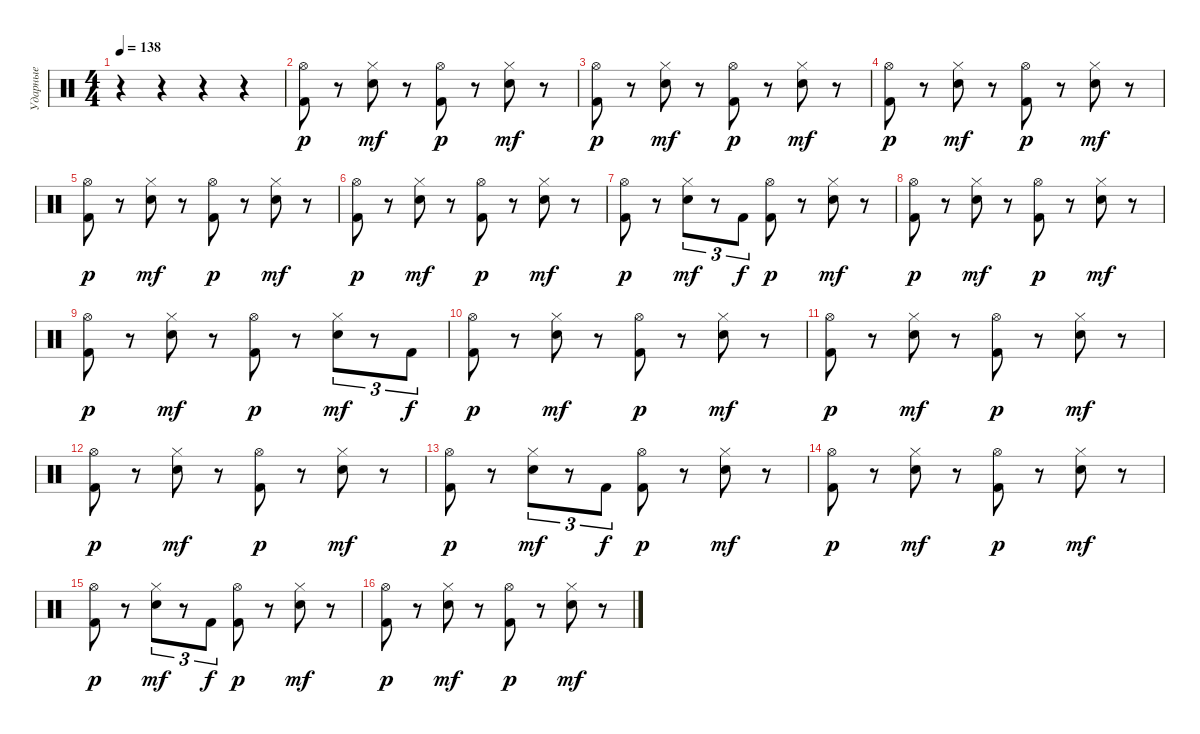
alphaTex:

\track ("Ударные" "Ударные") {instrument percussion}
\staff {score}
\articulation defaults
\ts (4 4)
\tempo 138
\clef neutral
\ks c
r.4{dy p} r.4 r.4 r.4 |
("Hi-Hat (open)" "Kick (hit) 2").8 r.8 ("Hi-Hat (closed)" "Snare (hit) 2").8{dy mf} r.8 ("Hi-Hat (open)" "Kick (hit) 2").8{dy p} r.8 ("Hi-Hat (closed)" "Snare (hit) 2").8{dy mf} r.8 |
("Hi-Hat (open)" "Kick (hit) 2").8{dy p} r.8 ("Hi-Hat (closed)" "Snare (hit) 2").8{dy mf} r.8 ("Hi-Hat (open)" "Kick (hit) 2").8{dy p} r.8 ("Hi-Hat (closed)" "Snare (hit) 2").8{dy mf} r.8 |
("Hi-Hat (open)" "Kick (hit) 2").8{dy p} r.8 ("Hi-Hat (closed)" "Snare (hit) 2").8{dy mf} r.8 ("Hi-Hat (open)" "Kick (hit) 2").8{dy p} r.8 ("Hi-Hat (closed)" "Snare (hit) 2").8{dy mf} r.8 |
("Hi-Hat (open)" "Kick (hit) 2").8{dy p} r.8 ("Hi-Hat (closed)" "Snare (hit) 2").8{dy mf} r.8 ("Hi-Hat (open)" "Kick (hit) 2").8{dy p} r.8 ("Hi-Hat (closed)" "Snare (hit) 2").8{dy mf} r.8 |
("Hi-Hat (open)" "Kick (hit) 2").8{dy p} r.8 ("Hi-Hat (closed)" "Snare (hit) 2").8{dy mf} r.8 ("Hi-Hat (open)" "Kick (hit) 2").8{dy p} r.8 ("Hi-Hat (closed)" "Snare (hit) 2").8{dy mf} r.8 |
("Hi-Hat (open)" "Kick (hit) 2").8{dy p} r.8 ("Hi-Hat (closed)" "Snare (hit) 2").8{tu (3 2) dy mf} r.8{tu (3 2)} "Kick (hit) 2".8{tu (3 2) dy f} ("Hi-Hat (open)" "Kick (hit) 2").8{dy p} r.8 ("Hi-Hat (closed)" "Snare (hit) 2").8{dy mf} r.8 |
("Hi-Hat (open)" "Kick (hit) 2").8{dy p} r.8 ("Hi-Hat (closed)" "Snare (hit) 2").8{dy mf} r.8 ("Hi-Hat (open)" "Kick (hit) 2").8{dy p} r.8 ("Hi-Hat (closed)" "Snare (hit) 2").8{dy mf} r.8 |
("Hi-Hat (open)" "Kick (hit) 2").8{dy p} r.8 ("Hi-Hat (closed)" "Snare (hit) 2").8{dy mf} r.8 ("Hi-Hat (open)" "Kick (hit) 2").8{dy p} r.8 ("Hi-Hat (closed)" "Snare (hit) 2").8{tu (3 2) dy mf} r.8{tu (3 2)} "Kick (hit) 2".8{tu (3 2) dy f} |
("Hi-Hat (open)" "Kick (hit) 2").8{dy p} r.8 ("Hi-Hat (closed)" "Snare (hit) 2").8{dy mf} r.8 ("Hi-Hat (open)" "Kick (hit) 2").8{dy p} r.8 ("Hi-Hat (closed)" "Snare (hit) 2").8{dy mf} r.8 |
("Hi-Hat (open)" "Kick (hit) 2").8{dy p} r.8 ("Hi-Hat (closed)" "Snare (hit) 2").8{dy mf} r.8 ("Hi-Hat (open)" "Kick (hit) 2").8{dy p} r.8 ("Hi-Hat (closed)" "Snare (hit) 2").8{dy mf} r.8 |
("Hi-Hat (open)" "Kick (hit) 2").8{dy p} r.8 ("Hi-Hat (closed)" "Snare (hit) 2").8{dy mf} r.8 ("Hi-Hat (open)" "Kick (hit) 2").8{dy p} r.8 ("Hi-Hat (closed)" "Snare (hit) 2").8{dy mf} r.8 |
("Hi-Hat (open)" "Kick (hit) 2").8{dy p} r.8 ("Hi-Hat (closed)" "Snare (hit) 2").8{tu (3 2) dy mf} r.8{tu (3 2)} "Kick (hit) 2".8{tu (3 2) dy f} ("Hi-Hat (open)" "Kick (hit) 2").8{dy p} r.8 ("Hi-Hat (closed)" "Snare (hit) 2").8{dy mf} r.8 |
("Hi-Hat (open)" "Kick (hit) 2").8{dy p} r.8 ("Hi-Hat (closed)" "Snare (hit) 2").8{dy mf} r.8 ("Hi-Hat (open)" "Kick (hit) 2").8{dy p} r.8 ("Hi-Hat (closed)" "Snare (hit) 2").8{dy mf} r.8 |
("Hi-Hat (open)" "Kick (hit) 2").8{dy p} r.8 ("Hi-Hat (closed)" "Snare (hit) 2").8{tu (3 2) dy mf} r.8{tu (3 2)} "Kick (hit) 2".8{tu (3 2) dy f} ("Hi-Hat (open)" "Kick (hit) 2").8{dy p} r.8 ("Hi-Hat (closed)" "Snare (hit) 2").8{dy mf} r.8 |
("Hi-Hat (open)" "Kick (hit) 2").8{dy p} r.8 ("Hi-Hat (closed)" "Snare (hit) 2").8{dy mf} r.8 ("Hi-Hat (open)" "Kick (hit) 2").8{dy p} r.8 ("Hi-Hat (closed)" "Snare (hit) 2").8{dy mf} r.8
